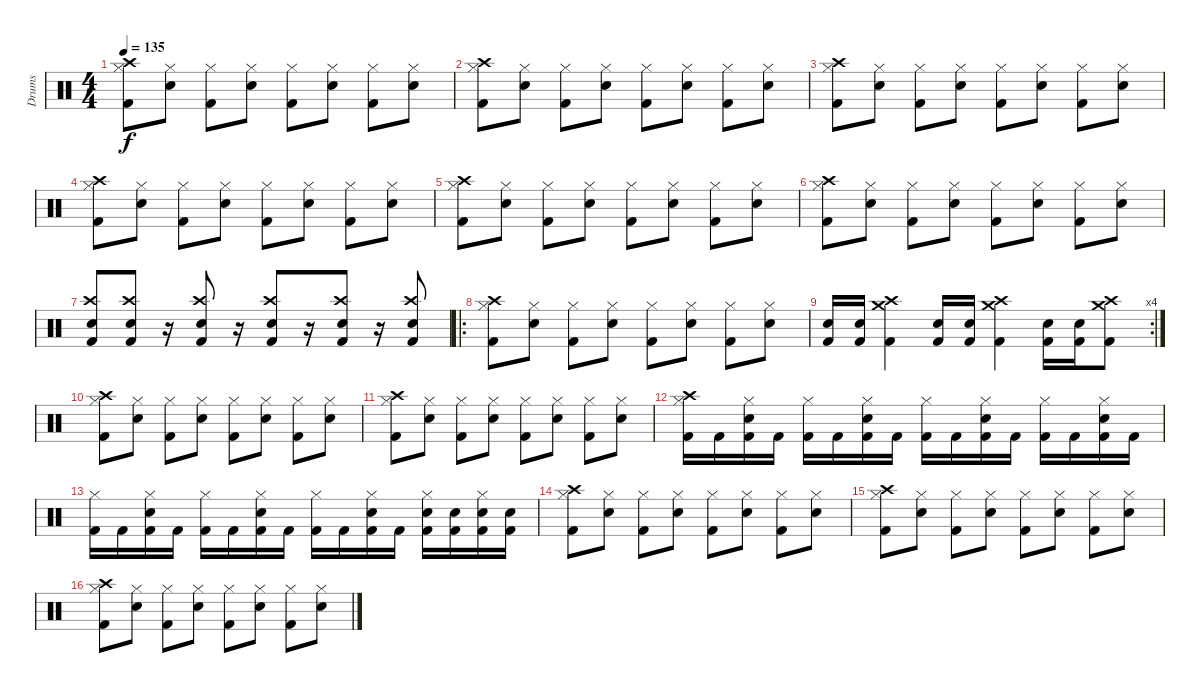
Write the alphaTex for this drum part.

\track ("Drums" "Drums") {instrument percussion}
\staff {score}
\articulation defaults
\ts (4 4)
\tempo 135
\clef neutral
\ks c
("Hi-Hat (closed)" "Kick (hit) 2" "Crash high (hit)").8{dy f} ("Hi-Hat (closed)" "Electric Snare (hit)").8 ("Hi-Hat (closed)" "Kick (hit) 2").8 ("Hi-Hat (closed)" "Electric Snare (hit)").8 ("Hi-Hat (closed)" "Kick (hit) 2").8 ("Hi-Hat (closed)" "Electric Snare (hit)").8 ("Hi-Hat (closed)" "Kick (hit) 2").8 ("Hi-Hat (closed)" "Electric Snare (hit)").8 |
("Hi-Hat (closed)" "Kick (hit) 2" "Crash high (hit)").8 ("Hi-Hat (closed)" "Electric Snare (hit)").8 ("Hi-Hat (closed)" "Kick (hit) 2").8 ("Hi-Hat (closed)" "Electric Snare (hit)").8 ("Hi-Hat (closed)" "Kick (hit) 2").8 ("Hi-Hat (closed)" "Electric Snare (hit)").8 ("Hi-Hat (closed)" "Kick (hit) 2").8 ("Hi-Hat (closed)" "Electric Snare (hit)").8 |
("Hi-Hat (closed)" "Kick (hit) 2" "Crash high (hit)").8 ("Hi-Hat (closed)" "Electric Snare (hit)").8 ("Hi-Hat (closed)" "Kick (hit) 2").8 ("Hi-Hat (closed)" "Electric Snare (hit)").8 ("Hi-Hat (closed)" "Kick (hit) 2").8 ("Hi-Hat (closed)" "Electric Snare (hit)").8 ("Hi-Hat (closed)" "Kick (hit) 2").8 ("Hi-Hat (closed)" "Electric Snare (hit)").8 |
("Hi-Hat (closed)" "Kick (hit) 2" "Crash high (hit)").8 ("Hi-Hat (closed)" "Electric Snare (hit)").8 ("Hi-Hat (closed)" "Kick (hit) 2").8 ("Hi-Hat (closed)" "Electric Snare (hit)").8 ("Hi-Hat (closed)" "Kick (hit) 2").8 ("Hi-Hat (closed)" "Electric Snare (hit)").8 ("Hi-Hat (closed)" "Kick (hit) 2").8 ("Hi-Hat (closed)" "Electric Snare (hit)").8 |
("Hi-Hat (closed)" "Kick (hit) 2" "Crash high (hit)").8 ("Hi-Hat (closed)" "Electric Snare (hit)").8 ("Hi-Hat (closed)" "Kick (hit) 2").8 ("Hi-Hat (closed)" "Electric Snare (hit)").8 ("Hi-Hat (closed)" "Kick (hit) 2").8 ("Hi-Hat (closed)" "Electric Snare (hit)").8 ("Hi-Hat (closed)" "Kick (hit) 2").8 ("Hi-Hat (closed)" "Electric Snare (hit)").8 |
("Hi-Hat (closed)" "Kick (hit) 2" "Crash high (hit)").8 ("Hi-Hat (closed)" "Electric Snare (hit)").8 ("Hi-Hat (closed)" "Kick (hit) 2").8 ("Hi-Hat (closed)" "Electric Snare (hit)").8 ("Hi-Hat (closed)" "Kick (hit) 2").8 ("Hi-Hat (closed)" "Electric Snare (hit)").8 ("Hi-Hat (closed)" "Kick (hit) 2").8 ("Hi-Hat (closed)" "Electric Snare (hit)").8 |
("Electric Snare (hit)" "Kick (hit) 2" "Crash high (hit)").8 ("Electric Snare (hit)" "Kick (hit) 2" "Crash high (hit)").8 r.16 ("Electric Snare (hit)" "Kick (hit) 2" "Crash high (hit)").8 r.16 ("Electric Snare (hit)" "Kick (hit) 2" "Crash high (hit)").8 r.16 ("Electric Snare (hit)" "Kick (hit) 2" "Crash high (hit)").8 r.16 ("Electric Snare (hit)" "Kick (hit) 2" "Crash high (hit)").8 |
\ro
("Hi-Hat (closed)" "Kick (hit) 2" "Crash high (hit)").8 ("Hi-Hat (closed)" "Electric Snare (hit)").8 ("Hi-Hat (closed)" "Kick (hit) 2").8 ("Hi-Hat (closed)" "Electric Snare (hit)").8 ("Hi-Hat (closed)" "Kick (hit) 2").8 ("Hi-Hat (closed)" "Electric Snare (hit)").8 ("Hi-Hat (closed)" "Kick (hit) 2").8 ("Hi-Hat (closed)" "Electric Snare (hit)").8 |
\rc 4
("Electric Snare (hit)" "Kick (hit) 2").16 ("Electric Snare (hit)" "Kick (hit) 2").16 ("Crash high (hit)" "Crash medium (hit)" "Kick (hit) 2").4 ("Electric Snare (hit)" "Kick (hit) 2").16 ("Electric Snare (hit)" "Kick (hit) 2").16 ("Crash high (hit)" "Crash medium (hit)" "Kick (hit) 2").4 ("Electric Snare (hit)" "Kick (hit) 2").16 ("Electric Snare (hit)" "Kick (hit) 2").16 ("Crash high (hit)" "Crash medium (hit)" "Kick (hit) 2").8 |
("Hi-Hat (closed)" "Kick (hit) 2" "Crash high (hit)").8 ("Hi-Hat (closed)" "Electric Snare (hit)").8 ("Hi-Hat (closed)" "Kick (hit) 2").8 ("Hi-Hat (closed)" "Electric Snare (hit)").8 ("Hi-Hat (closed)" "Kick (hit) 2").8 ("Hi-Hat (closed)" "Electric Snare (hit)").8 ("Hi-Hat (closed)" "Kick (hit) 2").8 ("Hi-Hat (closed)" "Electric Snare (hit)").8 |
("Hi-Hat (closed)" "Kick (hit) 2" "Crash high (hit)").8 ("Hi-Hat (closed)" "Electric Snare (hit)").8 ("Hi-Hat (closed)" "Kick (hit) 2").8 ("Hi-Hat (closed)" "Electric Snare (hit)").8 ("Hi-Hat (closed)" "Kick (hit) 2").8 ("Hi-Hat (closed)" "Electric Snare (hit)").8 ("Hi-Hat (closed)" "Kick (hit) 2").8 ("Hi-Hat (closed)" "Electric Snare (hit)").8 |
("Kick (hit) 2" "Hi-Hat (closed)" "Crash high (hit)").16 "Kick (hit) 2".16 ("Kick (hit) 2" "Electric Snare (hit)" "Hi-Hat (closed)").16 "Kick (hit) 2".16 ("Kick (hit) 2" "Hi-Hat (closed)").16 "Kick (hit) 2".16 ("Kick (hit) 2" "Electric Snare (hit)" "Hi-Hat (closed)").16 "Kick (hit) 2".16 ("Kick (hit) 2" "Hi-Hat (closed)").16 "Kick (hit) 2".16 ("Kick (hit) 2" "Electric Snare (hit)" "Hi-Hat (closed)").16 "Kick (hit) 2".16 ("Kick (hit) 2" "Hi-Hat (closed)").16 "Kick (hit) 2".16 ("Kick (hit) 2" "Electric Snare (hit)" "Hi-Hat (closed)").16 "Kick (hit) 2".16 |
("Kick (hit) 2" "Hi-Hat (closed)").16 "Kick (hit) 2".16 ("Kick (hit) 2" "Electric Snare (hit)" "Hi-Hat (closed)").16 "Kick (hit) 2".16 ("Kick (hit) 2" "Hi-Hat (closed)").16 "Kick (hit) 2".16 ("Kick (hit) 2" "Electric Snare (hit)" "Hi-Hat (closed)").16 "Kick (hit) 2".16 ("Kick (hit) 2" "Hi-Hat (closed)").16 "Kick (hit) 2".16 ("Kick (hit) 2" "Electric Snare (hit)" "Hi-Hat (closed)").16 "Kick (hit) 2".16 ("Kick (hit) 2" "Electric Snare (hit)" "Hi-Hat (closed)").16 ("Kick (hit) 2" "Electric Snare (hit)").16 ("Kick (hit) 2" "Electric Snare (hit)" "Hi-Hat (closed)").16 ("Kick (hit) 2" "Electric Snare (hit)").16 |
("Hi-Hat (closed)" "Kick (hit) 2" "Crash high (hit)").8 ("Hi-Hat (closed)" "Electric Snare (hit)").8 ("Hi-Hat (closed)" "Kick (hit) 2").8 ("Hi-Hat (closed)" "Electric Snare (hit)").8 ("Hi-Hat (closed)" "Kick (hit) 2").8 ("Hi-Hat (closed)" "Electric Snare (hit)").8 ("Hi-Hat (closed)" "Kick (hit) 2").8 ("Hi-Hat (closed)" "Electric Snare (hit)").8 |
("Hi-Hat (closed)" "Kick (hit) 2" "Crash high (hit)").8 ("Hi-Hat (closed)" "Electric Snare (hit)").8 ("Hi-Hat (closed)" "Kick (hit) 2").8 ("Hi-Hat (closed)" "Electric Snare (hit)").8 ("Hi-Hat (closed)" "Kick (hit) 2").8 ("Hi-Hat (closed)" "Electric Snare (hit)").8 ("Hi-Hat (closed)" "Kick (hit) 2").8 ("Hi-Hat (closed)" "Electric Snare (hit)").8 |
("Hi-Hat (closed)" "Kick (hit) 2" "Crash high (hit)").8 ("Hi-Hat (closed)" "Electric Snare (hit)").8 ("Hi-Hat (closed)" "Kick (hit) 2").8 ("Hi-Hat (closed)" "Electric Snare (hit)").8 ("Hi-Hat (closed)" "Kick (hit) 2").8 ("Hi-Hat (closed)" "Electric Snare (hit)").8 ("Hi-Hat (closed)" "Kick (hit) 2").8 ("Hi-Hat (closed)" "Electric Snare (hit)").8
